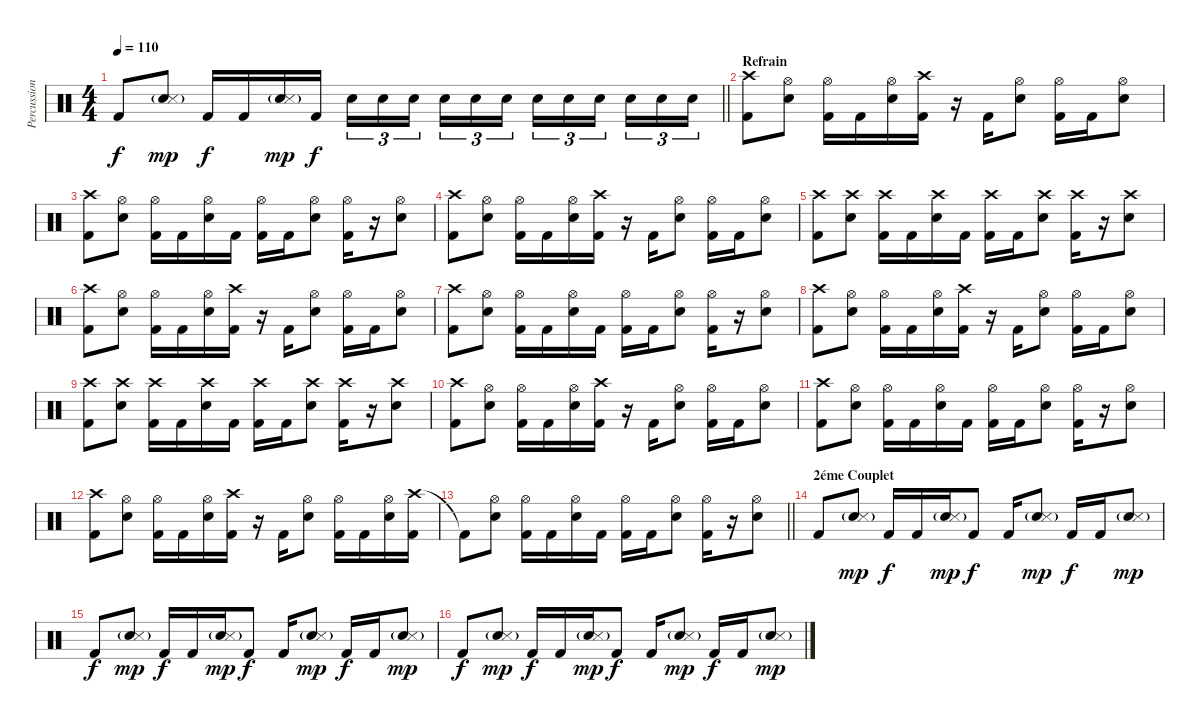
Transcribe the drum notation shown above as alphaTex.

\track ("Percussions" "Percussion") {instrument percussion}
\staff {score}
\articulation defaults
\ts (4 4)
\tempo 110
\clef neutral
\barLineRight lightlight
\ks c "Kick (hit) 2".8{dy f}
("Electric Snare (hit)"{g} "Snare (side stick) 3").8{dy mp} "Kick (hit) 2".16{dy f} "Kick (hit) 2".16 ("Electric Snare (hit)"{g} "Snare (side stick) 3").16{dy mp} "Kick (hit) 2".16{dy f} "Electric Snare (hit)".16{tu (3 2)} "Electric Snare (hit)".16{tu (3 2)} "Electric Snare (hit)".16{tu (3 2)} "Electric Snare (hit)".16{tu (3 2)} "Electric Snare (hit)".16{tu (3 2)} "Electric Snare (hit)".16{tu (3 2)} "Electric Snare (hit)".16{tu (3 2)} "Electric Snare (hit)".16{tu (3 2)} "Electric Snare (hit)".16{tu (3 2)} "Electric Snare (hit)".16{tu (3 2)} "Electric Snare (hit)".16{tu (3 2)} "Electric Snare (hit)".16{tu (3 2)} |
\section ("" "Refrain")
("Crash high (hit)" "Kick (hit) 2").8 ("Hi-Hat (open)" "Electric Snare (hit)").8 ("Hi-Hat (open)" "Kick (hit) 2").16 "Kick (hit) 2".16 ("Hi-Hat (open)" "Electric Snare (hit)").16 ("Crash high (hit)" "Kick (hit) 2").16 r.16 "Kick (hit) 2".16 ("Hi-Hat (open)" "Electric Snare (hit)").8 ("Hi-Hat (open)" "Kick (hit) 2").16 "Kick (hit) 2".16 ("Hi-Hat (open)" "Electric Snare (hit)").8 |
("Crash high (hit)" "Kick (hit) 2").8 ("Hi-Hat (open)" "Electric Snare (hit)").8 ("Hi-Hat (open)" "Kick (hit) 2").16 "Kick (hit) 2".16 ("Hi-Hat (open)" "Electric Snare (hit)").16 "Kick (hit) 2".16 ("Hi-Hat (open)" "Kick (hit) 2").16 "Kick (hit) 2".16 ("Hi-Hat (open)" "Electric Snare (hit)").8 ("Hi-Hat (open)" "Kick (hit) 2").16 r.16 ("Hi-Hat (open)" "Electric Snare (hit)").8 |
("Crash high (hit)" "Kick (hit) 2").8 ("Hi-Hat (open)" "Electric Snare (hit)").8 ("Hi-Hat (open)" "Kick (hit) 2").16 "Kick (hit) 2".16 ("Hi-Hat (open)" "Electric Snare (hit)").16 ("Crash high (hit)" "Kick (hit) 2").16 r.16 "Kick (hit) 2".16 ("Hi-Hat (open)" "Electric Snare (hit)").8 ("Hi-Hat (open)" "Kick (hit) 2").16 "Kick (hit) 2".16 ("Hi-Hat (open)" "Electric Snare (hit)").8 |
("Crash high (hit)" "Kick (hit) 2").8 ("Crash high (hit)" "Electric Snare (hit)").8 ("Crash high (hit)" "Kick (hit) 2").16 "Kick (hit) 2".16 ("Crash high (hit)" "Electric Snare (hit)").16 "Kick (hit) 2".16 ("Crash high (hit)" "Kick (hit) 2").16 "Kick (hit) 2".16 ("Crash high (hit)" "Electric Snare (hit)").8 ("Crash high (hit)" "Kick (hit) 2").16 r.16 ("Crash high (hit)" "Electric Snare (hit)").8 |
("Crash high (hit)" "Kick (hit) 2").8 ("Hi-Hat (open)" "Electric Snare (hit)").8 ("Hi-Hat (open)" "Kick (hit) 2").16 "Kick (hit) 2".16 ("Hi-Hat (open)" "Electric Snare (hit)").16 ("Crash high (hit)" "Kick (hit) 2").16 r.16 "Kick (hit) 2".16 ("Hi-Hat (open)" "Electric Snare (hit)").8 ("Hi-Hat (open)" "Kick (hit) 2").16 "Kick (hit) 2".16 ("Hi-Hat (open)" "Electric Snare (hit)").8 |
("Crash high (hit)" "Kick (hit) 2").8 ("Hi-Hat (open)" "Electric Snare (hit)").8 ("Hi-Hat (open)" "Kick (hit) 2").16 "Kick (hit) 2".16 ("Hi-Hat (open)" "Electric Snare (hit)").16 "Kick (hit) 2".16 ("Hi-Hat (open)" "Kick (hit) 2").16 "Kick (hit) 2".16 ("Hi-Hat (open)" "Electric Snare (hit)").8 ("Hi-Hat (open)" "Kick (hit) 2").16 r.16 ("Hi-Hat (open)" "Electric Snare (hit)").8 |
("Crash high (hit)" "Kick (hit) 2").8 ("Hi-Hat (open)" "Electric Snare (hit)").8 ("Hi-Hat (open)" "Kick (hit) 2").16 "Kick (hit) 2".16 ("Hi-Hat (open)" "Electric Snare (hit)").16 ("Crash high (hit)" "Kick (hit) 2").16 r.16 "Kick (hit) 2".16 ("Hi-Hat (open)" "Electric Snare (hit)").8 ("Hi-Hat (open)" "Kick (hit) 2").16 "Kick (hit) 2".16 ("Hi-Hat (open)" "Electric Snare (hit)").8 |
("Crash high (hit)" "Kick (hit) 2").8 ("Crash high (hit)" "Electric Snare (hit)").8 ("Crash high (hit)" "Kick (hit) 2").16 "Kick (hit) 2".16 ("Crash high (hit)" "Electric Snare (hit)").16 "Kick (hit) 2".16 ("Crash high (hit)" "Kick (hit) 2").16 "Kick (hit) 2".16 ("Crash high (hit)" "Electric Snare (hit)").8 ("Crash high (hit)" "Kick (hit) 2").16 r.16 ("Crash high (hit)" "Electric Snare (hit)").8 |
("Crash high (hit)" "Kick (hit) 2").8 ("Hi-Hat (open)" "Electric Snare (hit)").8 ("Hi-Hat (open)" "Kick (hit) 2").16 "Kick (hit) 2".16 ("Hi-Hat (open)" "Electric Snare (hit)").16 ("Crash high (hit)" "Kick (hit) 2").16 r.16 "Kick (hit) 2".16 ("Hi-Hat (open)" "Electric Snare (hit)").8 ("Hi-Hat (open)" "Kick (hit) 2").16 "Kick (hit) 2".16 ("Hi-Hat (open)" "Electric Snare (hit)").8 |
("Crash high (hit)" "Kick (hit) 2").8 ("Hi-Hat (open)" "Electric Snare (hit)").8 ("Hi-Hat (open)" "Kick (hit) 2").16 "Kick (hit) 2".16 ("Hi-Hat (open)" "Electric Snare (hit)").16 "Kick (hit) 2".16 ("Hi-Hat (open)" "Kick (hit) 2").16 "Kick (hit) 2".16 ("Hi-Hat (open)" "Electric Snare (hit)").8 ("Hi-Hat (open)" "Kick (hit) 2").16 r.16 ("Hi-Hat (open)" "Electric Snare (hit)").8 |
("Crash high (hit)" "Kick (hit) 2").8 ("Hi-Hat (open)" "Electric Snare (hit)").8 ("Hi-Hat (open)" "Kick (hit) 2").16 "Kick (hit) 2".16 ("Hi-Hat (open)" "Electric Snare (hit)").16 ("Crash high (hit)" "Kick (hit) 2").16 r.16 "Kick (hit) 2".16 ("Hi-Hat (open)" "Electric Snare (hit)").8 ("Hi-Hat (open)" "Kick (hit) 2").16 "Kick (hit) 2".16 ("Hi-Hat (open)" "Electric Snare (hit)").16 ("Crash high (hit)" "Kick (hit) 2").16 |
\barLineRight lightlight "Kick (hit) 2"{t}.8
("Hi-Hat (open)" "Electric Snare (hit)").8 ("Hi-Hat (open)" "Kick (hit) 2").16 "Kick (hit) 2".16 ("Hi-Hat (open)" "Electric Snare (hit)").16 "Kick (hit) 2".16 ("Hi-Hat (open)" "Kick (hit) 2").16 "Kick (hit) 2".16 ("Hi-Hat (open)" "Electric Snare (hit)").8 ("Hi-Hat (open)" "Kick (hit) 2").16 r.16 ("Hi-Hat (open)" "Electric Snare (hit)").8 |
\section ("" "2éme Couplet")
"Kick (hit) 2".8 ("Electric Snare (hit)"{g} "Snare (side stick) 3").8{dy mp} "Kick (hit) 2".16{dy f} "Kick (hit) 2".16 ("Electric Snare (hit)"{g} "Snare (side stick) 3").16{dy mp} "Kick (hit) 2".8{dy f} "Kick (hit) 2".16 ("Electric Snare (hit)"{g} "Snare (side stick) 3").8{dy mp} "Kick (hit) 2".16{dy f} "Kick (hit) 2".16 ("Electric Snare (hit)"{g} "Snare (side stick) 3").8{dy mp} |
"Kick (hit) 2".8{dy f} ("Electric Snare (hit)"{g} "Snare (side stick) 3").8{dy mp} "Kick (hit) 2".16{dy f} "Kick (hit) 2".16 ("Electric Snare (hit)"{g} "Snare (side stick) 3").16{dy mp} "Kick (hit) 2".8{dy f} "Kick (hit) 2".16 ("Electric Snare (hit)"{g} "Snare (side stick) 3").8{dy mp} "Kick (hit) 2".16{dy f} "Kick (hit) 2".16 ("Electric Snare (hit)"{g} "Snare (side stick) 3").8{dy mp} |
"Kick (hit) 2".8{dy f} ("Electric Snare (hit)"{g} "Snare (side stick) 3").8{dy mp} "Kick (hit) 2".16{dy f} "Kick (hit) 2".16 ("Electric Snare (hit)"{g} "Snare (side stick) 3").16{dy mp} "Kick (hit) 2".8{dy f} "Kick (hit) 2".16 ("Electric Snare (hit)"{g} "Snare (side stick) 3").8{dy mp} "Kick (hit) 2".16{dy f} "Kick (hit) 2".16 ("Electric Snare (hit)"{g} "Snare (side stick) 3").8{dy mp}
